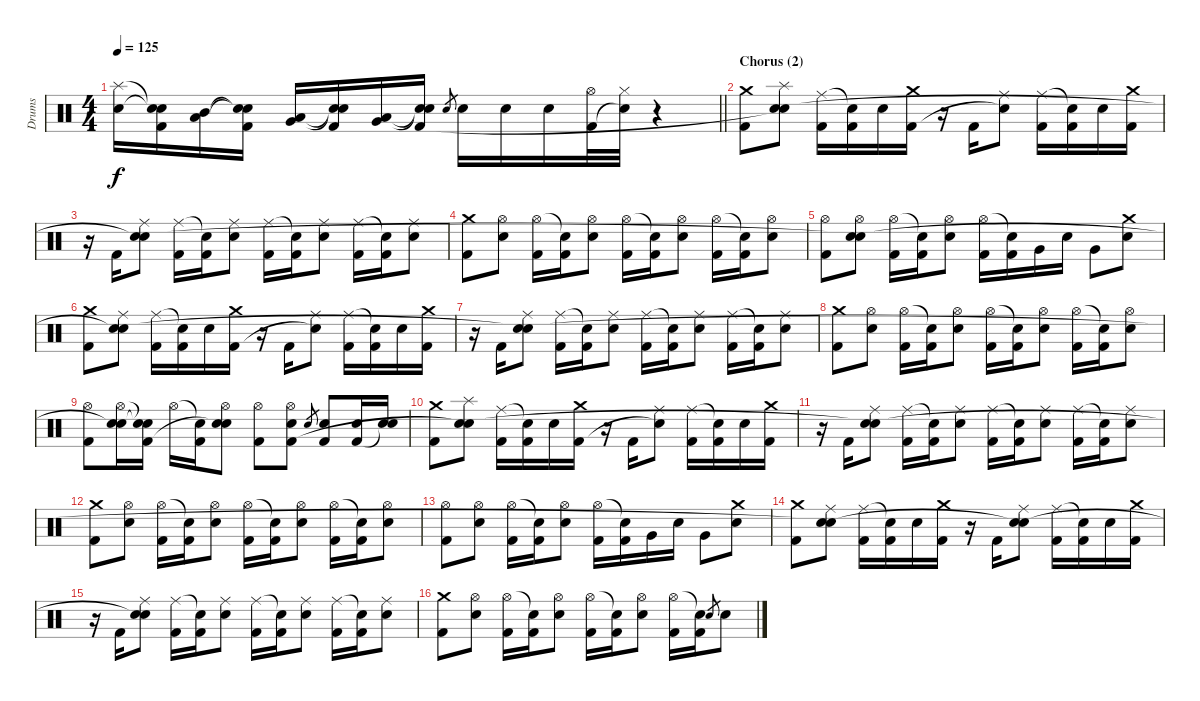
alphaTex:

\track ("Drums" "Drums") {instrument percussion}
\staff {score}
\articulation defaults
\ts (4 4)
\tempo 125
\clef neutral
\barLineRight lightlight
\ks c
("Splash (hit)" "Electric Snare (hit)").16{dy f} ("Snare (hit)"{t} "Snare (hit)"{t} "Kick (hit) 2").16 ("Mid Tom (hit)" "Low Tom (hit)").16 ("Snare (hit)"{t} "Snare (hit)"{t} "Kick (hit) 2").16 ("Low Tom (hit)" "Very Low Tom (hit)").16 ("Snare (hit)"{t} "Snare (hit)"{t} "Kick (hit) 2").16 ("Very Low Tom (hit)" "Low Floor Tom (hit)").16 ("Snare (hit)"{t} "Snare (hit)"{t} "Kick (hit) 2").16 "Electric Snare (hit)".8{gr} "Electric Snare (hit)".16 "Electric Snare (hit)".16 "Electric Snare (hit)".16 ("Hi-Hat (open)" "Kick (hit) 2").32 ("Hi-Hat (closed)" "Snare (hit)"{t}).32 r.4 |
\section ("" "Chorus (2)")
("Crash medium (hit)" "Kick (hit) 2").8 ("Splash (hit)" "Electric Snare (hit)" "Snare (hit)"{t}).8 ("Ride (middle)" "Kick (hit) 2").16 ("Snare (hit)"{t} "Kick (hit) 2").16 "Electric Snare (hit)".16 ("Crash medium (hit)" "Kick (hit) 2").16 r.16 "Kick (hit) 2".16 ("Ride (middle)" "Snare (hit)"{t}).8 ("Ride (middle)" "Kick (hit) 2").16 ("Snare (hit)"{t} "Kick (hit) 2").16 "Electric Snare (hit)".16 ("Crash medium (hit)" "Kick (hit) 2").16 |
r.16 "Kick (hit) 2".16 ("Ride (middle)" "Electric Snare (hit)" "Snare (hit)"{t}).8 ("Ride (middle)" "Kick (hit) 2").16 ("Snare (hit)"{t} "Kick (hit) 2").16 ("Ride (middle)" "Electric Snare (hit)").8 ("Ride (middle)" "Kick (hit) 2").16 ("Snare (hit)"{t} "Kick (hit) 2").16 ("Ride (middle)" "Electric Snare (hit)").8 ("Ride (middle)" "Kick (hit) 2").16 ("Snare (hit)"{t} "Kick (hit) 2").16 ("Ride (middle)" "Electric Snare (hit)").8 |
("Crash medium (hit)" "Kick (hit) 2").8 ("Hi-Hat (open)" "Electric Snare (hit)").8 ("Hi-Hat (open)" "Kick (hit) 2").16 ("Snare (hit)"{t} "Kick (hit) 2").16 ("Hi-Hat (open)" "Electric Snare (hit)").8 ("Hi-Hat (open)" "Kick (hit) 2").16 ("Snare (hit)"{t} "Kick (hit) 2").16 ("Hi-Hat (open)" "Electric Snare (hit)").8 ("Hi-Hat (open)" "Kick (hit) 2").16 ("Snare (hit)"{t} "Kick (hit) 2").16 ("Hi-Hat (open)" "Electric Snare (hit)").8 |
("Hi-Hat (open)" "Kick (hit) 2").8 ("Hi-Hat (open)" "Electric Snare (hit)" "Snare (hit)"{t}).8 ("Hi-Hat (open)" "Kick (hit) 2").16 ("Snare (hit)"{t} "Kick (hit) 2").16 ("Hi-Hat (open)" "Electric Snare (hit)").8 ("Hi-Hat (open)" "Kick (hit) 2").16 ("Snare (hit)"{t} "Kick (hit) 2").16 "Very Low Tom (hit)".16 "Electric Snare (hit)".16 "Very Low Tom (hit)".8 ("Crash medium (hit)" "Electric Snare (hit)").8 |
("Crash medium (hit)" "Kick (hit) 2").8 ("Ride (middle)" "Electric Snare (hit)" "Snare (hit)"{t}).8 ("Ride (middle)" "Kick (hit) 2").16 ("Snare (hit)"{t} "Kick (hit) 2").16 "Electric Snare (hit)".16 ("Crash medium (hit)" "Kick (hit) 2").16 r.16 "Kick (hit) 2".16 ("Ride (middle)" "Snare (hit)"{t}).8 ("Ride (middle)" "Kick (hit) 2").16 ("Snare (hit)"{t} "Kick (hit) 2").16 "Electric Snare (hit)".16 ("Crash medium (hit)" "Kick (hit) 2").16 |
r.16 "Kick (hit) 2".16 ("Ride (middle)" "Electric Snare (hit)" "Snare (hit)"{t}).8 ("Ride (middle)" "Kick (hit) 2").16 ("Snare (hit)"{t} "Kick (hit) 2").16 ("Ride (middle)" "Electric Snare (hit)").8 ("Ride (middle)" "Kick (hit) 2").16 ("Snare (hit)"{t} "Kick (hit) 2").16 ("Ride (middle)" "Electric Snare (hit)").8 ("Ride (middle)" "Kick (hit) 2").16 ("Snare (hit)"{t} "Kick (hit) 2").16 ("Ride (middle)" "Electric Snare (hit)").8 |
("Crash medium (hit)" "Kick (hit) 2").8 ("Hi-Hat (open)" "Electric Snare (hit)").8 ("Hi-Hat (open)" "Kick (hit) 2").16 ("Snare (hit)"{t} "Kick (hit) 2").16 ("Hi-Hat (open)" "Electric Snare (hit)").8 ("Hi-Hat (open)" "Kick (hit) 2").16 ("Snare (hit)"{t} "Kick (hit) 2").16 ("Hi-Hat (open)" "Electric Snare (hit)").8 ("Hi-Hat (open)" "Kick (hit) 2").16 ("Snare (hit)"{t} "Kick (hit) 2").16 ("Hi-Hat (open)" "Electric Snare (hit)").8 |
("Hi-Hat (open)" "Kick (hit) 2").8 ("Hi-Hat (open)" "Electric Snare (hit)" "Snare (hit)"{t}).16 ("Snare (hit)"{t} "Snare (hit)"{t} "Kick (hit) 2").16 "Hi-Hat (open)".16 ("Snare (hit)"{t} "Kick (hit) 2").16 ("Hi-Hat (open)" "Electric Snare (hit)" "Snare (hit)"{t}).8 ("Hi-Hat (open)" "Kick (hit) 2").8 ("Hi-Hat (open)" "Electric Snare (hit)" "Kick (hit) 2").8 "Electric Snare (hit)".8{gr} ("Electric Snare (hit)" "Kick (hit) 2").8 ("Electric Snare (hit)" "Kick (hit) 2").16 ("Electric Snare (hit)" "Snare (hit)"{t}).16 |
("Crash medium (hit)" "Kick (hit) 2").8 ("Splash (hit)" "Electric Snare (hit)" "Snare (hit)"{t}).8 ("Ride (middle)" "Kick (hit) 2").16 ("Snare (hit)"{t} "Kick (hit) 2").16 "Electric Snare (hit)".16 ("Crash medium (hit)" "Kick (hit) 2").16 r.16 "Kick (hit) 2".16 ("Ride (middle)" "Snare (hit)"{t}).8 ("Ride (middle)" "Kick (hit) 2").16 ("Snare (hit)"{t} "Kick (hit) 2").16 "Electric Snare (hit)".16 ("Crash medium (hit)" "Kick (hit) 2").16 |
r.16 "Kick (hit) 2".16 ("Ride (middle)" "Electric Snare (hit)" "Snare (hit)"{t}).8 ("Ride (middle)" "Kick (hit) 2").16 ("Snare (hit)"{t} "Kick (hit) 2").16 ("Ride (middle)" "Electric Snare (hit)").8 ("Ride (middle)" "Kick (hit) 2").16 ("Snare (hit)"{t} "Kick (hit) 2").16 ("Ride (middle)" "Electric Snare (hit)").8 ("Ride (middle)" "Kick (hit) 2").16 ("Snare (hit)"{t} "Kick (hit) 2").16 ("Ride (middle)" "Electric Snare (hit)").8 |
("Crash medium (hit)" "Kick (hit) 2").8 ("Hi-Hat (open)" "Electric Snare (hit)").8 ("Hi-Hat (open)" "Kick (hit) 2").16 ("Snare (hit)"{t} "Kick (hit) 2").16 ("Hi-Hat (open)" "Electric Snare (hit)").8 ("Hi-Hat (open)" "Kick (hit) 2").16 ("Snare (hit)"{t} "Kick (hit) 2").16 ("Hi-Hat (open)" "Electric Snare (hit)").8 ("Hi-Hat (open)" "Kick (hit) 2").16 ("Snare (hit)"{t} "Kick (hit) 2").16 ("Hi-Hat (open)" "Electric Snare (hit)").8 |
("Hi-Hat (open)" "Kick (hit) 2").8 ("Hi-Hat (open)" "Electric Snare (hit)").8 ("Hi-Hat (open)" "Kick (hit) 2").16 ("Snare (hit)"{t} "Kick (hit) 2").16 ("Hi-Hat (open)" "Electric Snare (hit)").8 ("Hi-Hat (open)" "Kick (hit) 2").16 ("Snare (hit)"{t} "Kick (hit) 2").16 "Very Low Tom (hit)".16 "Electric Snare (hit)".16 "Very Low Tom (hit)".8 ("Crash medium (hit)" "Electric Snare (hit)").8 |
("Crash medium (hit)" "Kick (hit) 2").8 ("Ride (middle)" "Electric Snare (hit)" "Snare (hit)"{t}).8 ("Ride (middle)" "Kick (hit) 2").16 ("Snare (hit)"{t} "Kick (hit) 2").16 "Electric Snare (hit)".16 ("Crash medium (hit)" "Kick (hit) 2").16 r.16 "Kick (hit) 2".16 ("Ride (middle)" "Electric Snare (hit)" "Snare (hit)"{t}).8 ("Ride (middle)" "Kick (hit) 2").16 ("Snare (hit)"{t} "Kick (hit) 2").16 "Electric Snare (hit)".16 ("Crash medium (hit)" "Kick (hit) 2").16 |
r.16 "Kick (hit) 2".16 ("Ride (middle)" "Electric Snare (hit)" "Snare (hit)"{t}).8 ("Ride (middle)" "Kick (hit) 2").16 ("Snare (hit)"{t} "Kick (hit) 2").16 ("Ride (middle)" "Electric Snare (hit)").8 ("Ride (middle)" "Kick (hit) 2").16 ("Snare (hit)"{t} "Kick (hit) 2").16 ("Ride (middle)" "Electric Snare (hit)").8 ("Ride (middle)" "Kick (hit) 2").16 ("Snare (hit)"{t} "Kick (hit) 2").16 ("Ride (middle)" "Electric Snare (hit)").8 |
("Crash medium (hit)" "Kick (hit) 2").8 ("Hi-Hat (open)" "Electric Snare (hit)").8 ("Hi-Hat (open)" "Kick (hit) 2").16 ("Snare (hit)"{t} "Kick (hit) 2").16 ("Hi-Hat (open)" "Electric Snare (hit)").8 ("Hi-Hat (open)" "Kick (hit) 2").16 ("Snare (hit)"{t} "Kick (hit) 2").16 ("Hi-Hat (open)" "Electric Snare (hit)").8 ("Hi-Hat (open)" "Kick (hit) 2").16 ("Snare (hit)"{t} "Kick (hit) 2").16 "Electric Snare (hit)".8{gr} "Electric Snare (hit)".8
